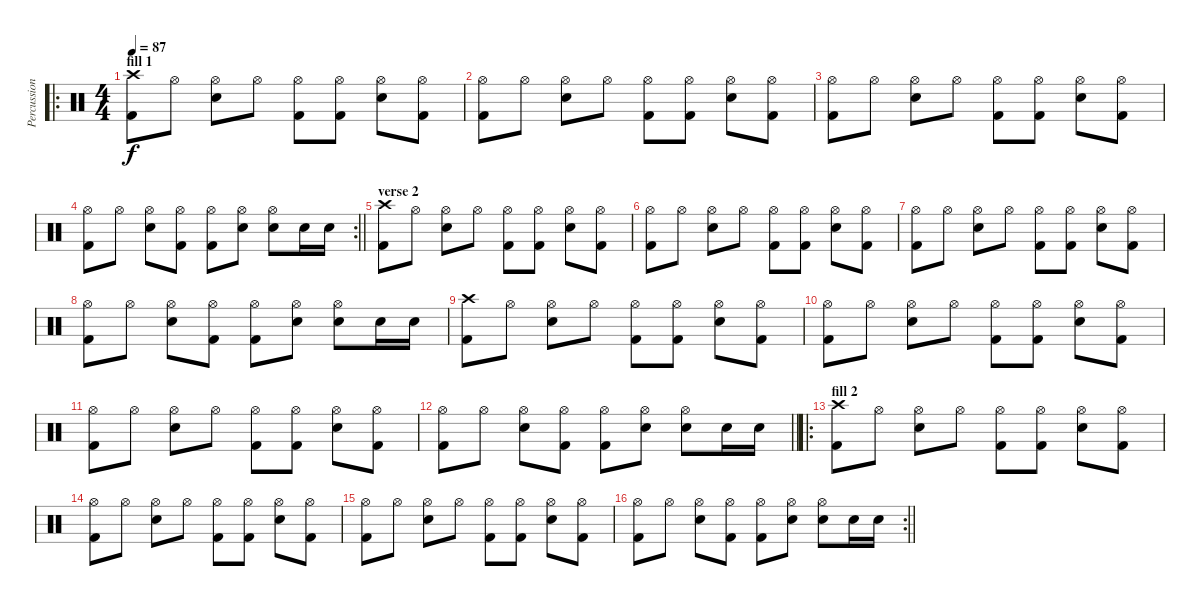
\track ("Percussion" "Percussion") {instrument percussion}
\staff {score}
\articulation defaults
\ro
\ts (4 4)
\section ("" "fill 1")
\tempo 87
\clef neutral
\ks c
("Crash high (hit)" "Kick (hit) 2").8{dy f} "Hi-Hat (open)".8 ("Hi-Hat (open)" "Snare (hit) 2").8 "Hi-Hat (open)".8 ("Hi-Hat (open)" "Kick (hit) 2").8 ("Hi-Hat (open)" "Kick (hit) 2").8 ("Hi-Hat (open)" "Snare (hit) 2").8 ("Hi-Hat (open)" "Kick (hit) 2").8 |
("Hi-Hat (open)" "Kick (hit) 2").8 "Hi-Hat (open)".8 ("Hi-Hat (open)" "Snare (hit) 2").8 "Hi-Hat (open)".8 ("Hi-Hat (open)" "Kick (hit) 2").8 ("Hi-Hat (open)" "Kick (hit) 2").8 ("Hi-Hat (open)" "Snare (hit) 2").8 ("Hi-Hat (open)" "Kick (hit) 2").8 |
("Hi-Hat (open)" "Kick (hit) 2").8 "Hi-Hat (open)".8 ("Hi-Hat (open)" "Snare (hit) 2").8 "Hi-Hat (open)".8 ("Hi-Hat (open)" "Kick (hit) 2").8 ("Hi-Hat (open)" "Kick (hit) 2").8 ("Hi-Hat (open)" "Snare (hit) 2").8 ("Hi-Hat (open)" "Kick (hit) 2").8 |
\rc 2
\barLineRight lightlight
("Hi-Hat (open)" "Kick (hit) 2").8 "Hi-Hat (open)".8 ("Hi-Hat (open)" "Snare (hit) 2").8 ("Hi-Hat (open)" "Kick (hit) 2").8 ("Hi-Hat (open)" "Kick (hit) 2").8 ("Hi-Hat (open)" "Snare (hit) 2").8 ("Hi-Hat (open)" "Snare (hit) 2").8 "Snare (hit) 2".16 "Snare (hit) 2".16 |
\section ("" "verse 2")
("Crash high (hit)" "Kick (hit) 2").8 "Hi-Hat (open)".8 ("Hi-Hat (open)" "Snare (hit) 2").8 "Hi-Hat (open)".8 ("Hi-Hat (open)" "Kick (hit) 2").8 ("Hi-Hat (open)" "Kick (hit) 2").8 ("Hi-Hat (open)" "Snare (hit) 2").8 ("Hi-Hat (open)" "Kick (hit) 2").8 |
("Hi-Hat (open)" "Kick (hit) 2").8 "Hi-Hat (open)".8 ("Hi-Hat (open)" "Snare (hit) 2").8 "Hi-Hat (open)".8 ("Hi-Hat (open)" "Kick (hit) 2").8 ("Hi-Hat (open)" "Kick (hit) 2").8 ("Hi-Hat (open)" "Snare (hit) 2").8 ("Hi-Hat (open)" "Kick (hit) 2").8 |
("Hi-Hat (open)" "Kick (hit) 2").8 "Hi-Hat (open)".8 ("Hi-Hat (open)" "Snare (hit) 2").8 "Hi-Hat (open)".8 ("Hi-Hat (open)" "Kick (hit) 2").8 ("Hi-Hat (open)" "Kick (hit) 2").8 ("Hi-Hat (open)" "Snare (hit) 2").8 ("Hi-Hat (open)" "Kick (hit) 2").8 |
("Hi-Hat (open)" "Kick (hit) 2").8 "Hi-Hat (open)".8 ("Hi-Hat (open)" "Snare (hit) 2").8 ("Hi-Hat (open)" "Kick (hit) 2").8 ("Hi-Hat (open)" "Kick (hit) 2").8 ("Hi-Hat (open)" "Snare (hit) 2").8 ("Hi-Hat (open)" "Snare (hit) 2").8 "Snare (hit) 2".16 "Snare (hit) 2".16 |
("Crash high (hit)" "Kick (hit) 2").8 "Hi-Hat (open)".8 ("Hi-Hat (open)" "Snare (hit) 2").8 "Hi-Hat (open)".8 ("Hi-Hat (open)" "Kick (hit) 2").8 ("Hi-Hat (open)" "Kick (hit) 2").8 ("Hi-Hat (open)" "Snare (hit) 2").8 ("Hi-Hat (open)" "Kick (hit) 2").8 |
("Hi-Hat (open)" "Kick (hit) 2").8 "Hi-Hat (open)".8 ("Hi-Hat (open)" "Snare (hit) 2").8 "Hi-Hat (open)".8 ("Hi-Hat (open)" "Kick (hit) 2").8 ("Hi-Hat (open)" "Kick (hit) 2").8 ("Hi-Hat (open)" "Snare (hit) 2").8 ("Hi-Hat (open)" "Kick (hit) 2").8 |
("Hi-Hat (open)" "Kick (hit) 2").8 "Hi-Hat (open)".8 ("Hi-Hat (open)" "Snare (hit) 2").8 "Hi-Hat (open)".8 ("Hi-Hat (open)" "Kick (hit) 2").8 ("Hi-Hat (open)" "Kick (hit) 2").8 ("Hi-Hat (open)" "Snare (hit) 2").8 ("Hi-Hat (open)" "Kick (hit) 2").8 |
\barLineRight lightlight
("Hi-Hat (open)" "Kick (hit) 2").8 "Hi-Hat (open)".8 ("Hi-Hat (open)" "Snare (hit) 2").8 ("Hi-Hat (open)" "Kick (hit) 2").8 ("Hi-Hat (open)" "Kick (hit) 2").8 ("Hi-Hat (open)" "Snare (hit) 2").8 ("Hi-Hat (open)" "Snare (hit) 2").8 "Snare (hit) 2".16 "Snare (hit) 2".16 |
\ro
\section ("" "fill 2")
("Crash high (hit)" "Kick (hit) 2").8 "Hi-Hat (open)".8 ("Hi-Hat (open)" "Snare (hit) 2").8 "Hi-Hat (open)".8 ("Hi-Hat (open)" "Kick (hit) 2").8 ("Hi-Hat (open)" "Kick (hit) 2").8 ("Hi-Hat (open)" "Snare (hit) 2").8 ("Hi-Hat (open)" "Kick (hit) 2").8 |
("Hi-Hat (open)" "Kick (hit) 2").8 "Hi-Hat (open)".8 ("Hi-Hat (open)" "Snare (hit) 2").8 "Hi-Hat (open)".8 ("Hi-Hat (open)" "Kick (hit) 2").8 ("Hi-Hat (open)" "Kick (hit) 2").8 ("Hi-Hat (open)" "Snare (hit) 2").8 ("Hi-Hat (open)" "Kick (hit) 2").8 |
("Hi-Hat (open)" "Kick (hit) 2").8 "Hi-Hat (open)".8 ("Hi-Hat (open)" "Snare (hit) 2").8 "Hi-Hat (open)".8 ("Hi-Hat (open)" "Kick (hit) 2").8 ("Hi-Hat (open)" "Kick (hit) 2").8 ("Hi-Hat (open)" "Snare (hit) 2").8 ("Hi-Hat (open)" "Kick (hit) 2").8 |
\rc 2
\barLineRight lightlight
("Hi-Hat (open)" "Kick (hit) 2").8 "Hi-Hat (open)".8 ("Hi-Hat (open)" "Snare (hit) 2").8 ("Hi-Hat (open)" "Kick (hit) 2").8 ("Hi-Hat (open)" "Kick (hit) 2").8 ("Hi-Hat (open)" "Snare (hit) 2").8 ("Hi-Hat (open)" "Snare (hit) 2").8 "Snare (hit) 2".16 "Snare (hit) 2".16
